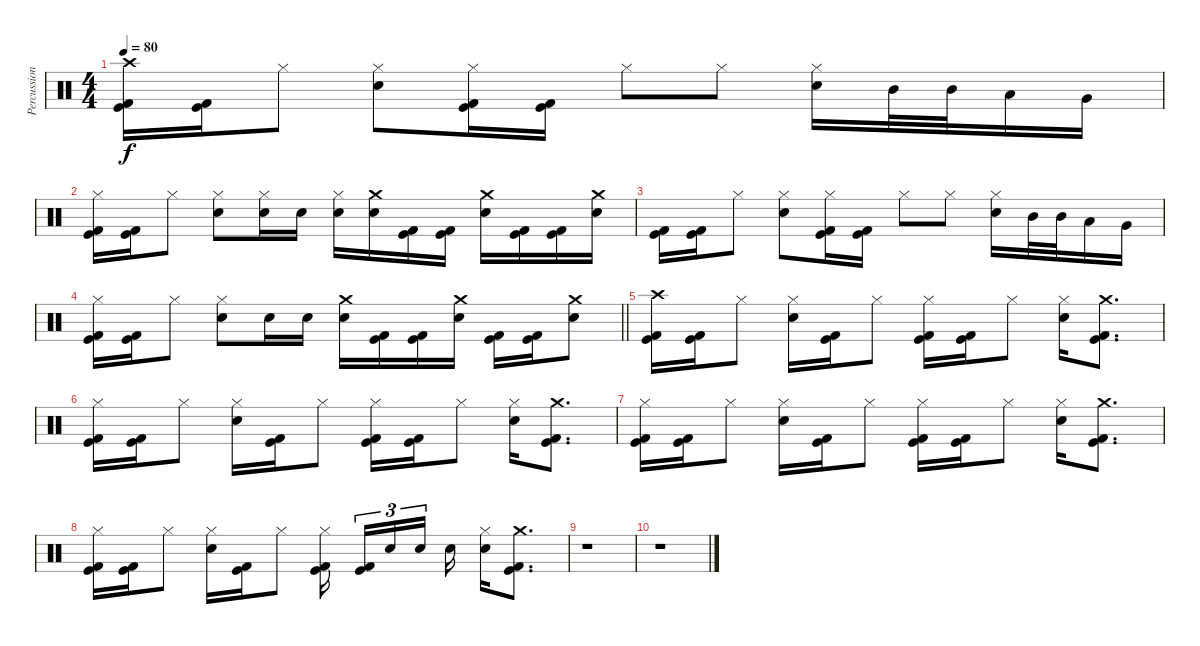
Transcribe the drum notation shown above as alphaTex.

\track ("Percussion" "Percussion") {instrument percussion}
\staff {score}
\articulation defaults
\ts (4 4)
\tempo 80
\clef neutral
\ks c
("Crash high (hit)" "Kick (hit)" "Kick (hit) 2").16{dy f} ("Kick (hit)" "Kick (hit) 2").16 "Hi-Hat (closed)".8 ("Hi-Hat (closed)" "Electric Snare (hit)").8 ("Hi-Hat (closed)" "Kick (hit)" "Kick (hit) 2").16 ("Kick (hit)" "Kick (hit) 2").16 "Hi-Hat (closed)".8 "Hi-Hat (closed)".8 ("Hi-Hat (closed)" "Electric Snare (hit)").16 "Mid Tom (hit)".32 "Mid Tom (hit)".32 "Low Tom (hit)".16 "Very Low Tom (hit)".16 |
("Hi-Hat (closed)" "Kick (hit)" "Kick (hit) 2").16 ("Kick (hit)" "Kick (hit) 2").16 "Hi-Hat (closed)".8 ("Hi-Hat (closed)" "Electric Snare (hit)").8 ("Hi-Hat (closed)" "Electric Snare (hit)").16 "Electric Snare (hit)".16 ("Hi-Hat (closed)" "Electric Snare (hit)").16 ("Crash medium (hit)" "Electric Snare (hit)").16 ("Kick (hit)" "Kick (hit) 2").16 ("Kick (hit)" "Kick (hit) 2").16 ("Crash medium (hit)" "Electric Snare (hit)").16 ("Kick (hit)" "Kick (hit) 2").16 ("Kick (hit)" "Kick (hit) 2").16 ("Crash medium (hit)" "Electric Snare (hit)").16 |
("Kick (hit)" "Kick (hit) 2").16 ("Kick (hit)" "Kick (hit) 2").16 "Hi-Hat (closed)".8 ("Hi-Hat (closed)" "Electric Snare (hit)").8 ("Hi-Hat (closed)" "Kick (hit)" "Kick (hit) 2").16 ("Kick (hit)" "Kick (hit) 2").16 "Hi-Hat (closed)".8 "Hi-Hat (closed)".8 ("Hi-Hat (closed)" "Electric Snare (hit)").16 "Mid Tom (hit)".32 "Mid Tom (hit)".32 "Low Tom (hit)".16 "Very Low Tom (hit)".16 |
\barLineRight lightlight
("Hi-Hat (closed)" "Kick (hit)" "Kick (hit) 2").16 ("Kick (hit)" "Kick (hit) 2").16 "Hi-Hat (closed)".8 ("Hi-Hat (closed)" "Electric Snare (hit)").8 "Electric Snare (hit)".16 "Electric Snare (hit)".16 ("Crash medium (hit)" "Electric Snare (hit)").16 ("Kick (hit)" "Kick (hit) 2").16 ("Kick (hit)" "Kick (hit) 2").16 ("Crash medium (hit)" "Electric Snare (hit)").16 ("Kick (hit)" "Kick (hit) 2").16 ("Kick (hit)" "Kick (hit) 2").16 ("Crash medium (hit)" "Electric Snare (hit)").8 |
\section ("" "")
("Crash high (hit)" "Kick (hit)" "Kick (hit) 2").16 ("Kick (hit)" "Kick (hit) 2").16 "Hi-Hat (closed)".8 ("Hi-Hat (closed)" "Electric Snare (hit)").16 ("Kick (hit)" "Kick (hit) 2").16 "Hi-Hat (closed)".8 ("Hi-Hat (closed)" "Kick (hit)" "Kick (hit) 2").16 ("Kick (hit)" "Kick (hit) 2").16 "Hi-Hat (closed)".8 ("Hi-Hat (closed)" "Electric Snare (hit)").16 ("Crash medium (hit)" "Kick (hit)" "Kick (hit) 2").8{d} |
("Hi-Hat (closed)" "Kick (hit)" "Kick (hit) 2").16 ("Kick (hit)" "Kick (hit) 2").16 "Hi-Hat (closed)".8 ("Hi-Hat (closed)" "Electric Snare (hit)").16 ("Kick (hit)" "Kick (hit) 2").16 "Hi-Hat (closed)".8 ("Hi-Hat (closed)" "Kick (hit)" "Kick (hit) 2").16 ("Kick (hit)" "Kick (hit) 2").16 "Hi-Hat (closed)".8 ("Hi-Hat (closed)" "Electric Snare (hit)").16 ("Crash medium (hit)" "Kick (hit)" "Kick (hit) 2").8{d} |
("Hi-Hat (closed)" "Kick (hit)" "Kick (hit) 2").16 ("Kick (hit)" "Kick (hit) 2").16 "Hi-Hat (closed)".8 ("Hi-Hat (closed)" "Electric Snare (hit)").16 ("Kick (hit)" "Kick (hit) 2").16 "Hi-Hat (closed)".8 ("Hi-Hat (closed)" "Kick (hit)" "Kick (hit) 2").16 ("Kick (hit)" "Kick (hit) 2").16 "Hi-Hat (closed)".8 ("Hi-Hat (closed)" "Electric Snare (hit)").16 ("Crash medium (hit)" "Kick (hit)" "Kick (hit) 2").8{d} |
("Hi-Hat (closed)" "Kick (hit)" "Kick (hit) 2").16 ("Kick (hit)" "Kick (hit) 2").16 "Hi-Hat (closed)".8 ("Hi-Hat (closed)" "Electric Snare (hit)").16 ("Kick (hit)" "Kick (hit) 2").16 "Hi-Hat (closed)".8 ("Hi-Hat (closed)" "Kick (hit)" "Kick (hit) 2").16{beam splitsecondary} ("Kick (hit)" "Kick (hit) 2").16{tu (3 2)} "Electric Snare (hit)".16{tu (3 2)} "Electric Snare (hit)".16{tu (3 2) beam splitsecondary} "Electric Snare (hit)".16 ("Hi-Hat (closed)" "Electric Snare (hit)").16 ("Crash medium (hit)" "Kick (hit)" "Kick (hit) 2").8{d} |
r.1{volume 0} |
r.1
